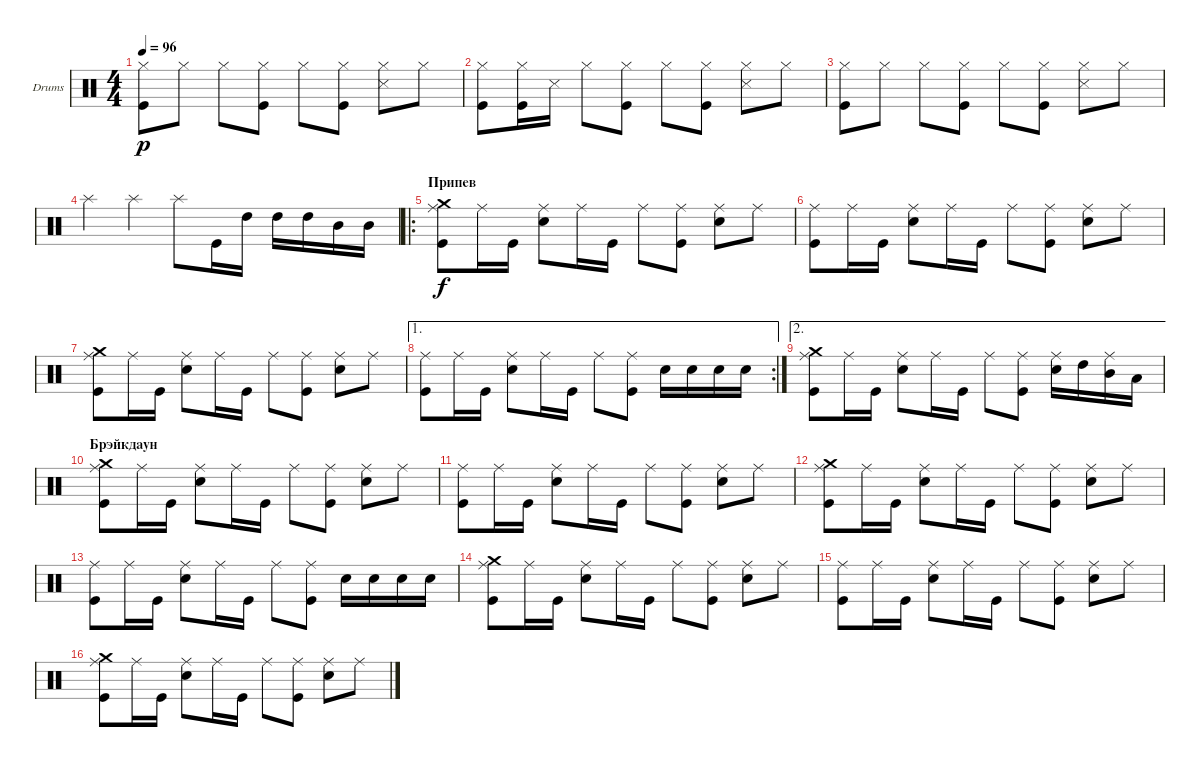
\defaultSystemsLayout 4
\bracketExtendMode groupsimilarinstruments
\firstSystemTrackNameOrientation horizontal
\otherSystemsTrackNameOrientation horizontal
\track ("Drumkit" "Drums") {instrument percussion}
\staff {score}
\articulation defaults
\ts (4 4)
\tempo 96
\clef neutral
\ks c
("Hi-Hat (closed)" "Kick (hit)").8{dy p} "Hi-Hat (closed)".8 "Hi-Hat (closed)".8 ("Hi-Hat (closed)" "Kick (hit)").8 "Hi-Hat (closed)".8 ("Hi-Hat (closed)" "Kick (hit)").8 ("Hi-Hat (closed)" "Snare (side stick) 3").8 "Hi-Hat (closed)".8 |
("Hi-Hat (closed)" "Kick (hit)").8 ("Hi-Hat (closed)" "Kick (hit)").16 "Snare (side stick) 3".16 "Hi-Hat (closed)".8 ("Hi-Hat (closed)" "Kick (hit)").8 "Hi-Hat (closed)".8 ("Hi-Hat (closed)" "Kick (hit)").8 ("Hi-Hat (closed)" "Snare (side stick) 3").8 "Hi-Hat (closed)".8 |
("Hi-Hat (closed)" "Kick (hit)").8 "Hi-Hat (closed)".8 "Hi-Hat (closed)".8 ("Hi-Hat (closed)" "Kick (hit)").8 "Hi-Hat (closed)".8 ("Hi-Hat (closed)" "Kick (hit)").8 ("Hi-Hat (closed)" "Snare (side stick) 3").8 "Hi-Hat (closed)".8 |
"Splash (hit)".4 "Splash (hit)".4 "Splash (hit)".8 "Kick (hit)".16 "High Tom (hit)".16 "High Tom (hit)".16 "High Tom (hit)".16 "Mid Tom (hit)".16 "Mid Tom (hit)".16 |
\ro
\section ("" "Припев")
("Crash medium (hit)" "Ride (middle)" "Kick (hit)").8{dy f} "Ride (middle)".16 "Kick (hit)".16 ("Ride (middle)" "Snare (hit) 2").8 "Ride (middle)".16 "Kick (hit)".16 "Ride (middle)".8 ("Ride (middle)" "Kick (hit)").8 ("Ride (middle)" "Snare (hit) 2").8 "Ride (middle)".8 |
("Ride (middle)" "Kick (hit)").8 "Ride (middle)".16 "Kick (hit)".16 ("Ride (middle)" "Snare (hit) 2").8 "Ride (middle)".16 "Kick (hit)".16 "Ride (middle)".8 ("Ride (middle)" "Kick (hit)").8 ("Ride (middle)" "Snare (hit) 2").8 "Ride (middle)".8 |
("Crash medium (hit)" "Ride (middle)" "Kick (hit)").8 "Ride (middle)".16 "Kick (hit)".16 ("Ride (middle)" "Snare (hit) 2").8 "Ride (middle)".16 "Kick (hit)".16 "Ride (middle)".8 ("Ride (middle)" "Kick (hit)").8 ("Ride (middle)" "Snare (hit) 2").8 "Ride (middle)".8 |
\ae 1
\rc 2
("Ride (middle)" "Kick (hit)").8 "Ride (middle)".16 "Kick (hit)".16 ("Ride (middle)" "Snare (hit) 2").8 "Ride (middle)".16 "Kick (hit)".16 "Ride (middle)".8 ("Ride (middle)" "Kick (hit)").8 "Snare (hit) 2".16 "Snare (hit) 2".16 "Snare (hit) 2".16 "Snare (hit) 2".16 |
\ae 2
("Crash medium (hit)" "Ride (middle)" "Kick (hit)").8 "Ride (middle)".16 "Kick (hit)".16 ("Ride (middle)" "Snare (hit) 2").8 "Ride (middle)".16 "Kick (hit)".16 "Ride (middle)".8 ("Ride (middle)" "Kick (hit)").8 ("Ride (middle)" "Snare (hit) 2").16 "High Tom (hit)".16 ("Ride (middle)" "Mid Tom (hit)").16 "Low Tom (hit)".16 |
\section ("" "Брэйкдаун")
("Crash medium (hit)" "Ride (middle)" "Kick (hit)").8 "Ride (middle)".16 "Kick (hit)".16 ("Ride (middle)" "Snare (hit) 2").8 "Ride (middle)".16 "Kick (hit)".16 "Ride (middle)".8 ("Ride (middle)" "Kick (hit)").8 ("Ride (middle)" "Snare (hit) 2").8 "Ride (middle)".8 |
("Ride (middle)" "Kick (hit)").8 "Ride (middle)".16 "Kick (hit)".16 ("Ride (middle)" "Snare (hit) 2").8 "Ride (middle)".16 "Kick (hit)".16 "Ride (middle)".8 ("Ride (middle)" "Kick (hit)").8 ("Ride (middle)" "Snare (hit) 2").8 "Ride (middle)".8 |
("Crash medium (hit)" "Ride (middle)" "Kick (hit)").8 "Ride (middle)".16 "Kick (hit)".16 ("Ride (middle)" "Snare (hit) 2").8 "Ride (middle)".16 "Kick (hit)".16 "Ride (middle)".8 ("Ride (middle)" "Kick (hit)").8 ("Ride (middle)" "Snare (hit) 2").8 "Ride (middle)".8 |
("Ride (middle)" "Kick (hit)").8 "Ride (middle)".16 "Kick (hit)".16 ("Ride (middle)" "Snare (hit) 2").8 "Ride (middle)".16 "Kick (hit)".16 "Ride (middle)".8 ("Ride (middle)" "Kick (hit)").8 "Snare (hit) 2".16 "Snare (hit) 2".16 "Snare (hit) 2".16 "Snare (hit) 2".16 |
("Crash medium (hit)" "Ride (middle)" "Kick (hit)").8 "Ride (middle)".16 "Kick (hit)".16 ("Ride (middle)" "Snare (hit) 2").8 "Ride (middle)".16 "Kick (hit)".16 "Ride (middle)".8 ("Ride (middle)" "Kick (hit)").8 ("Ride (middle)" "Snare (hit) 2").8 "Ride (middle)".8 |
("Ride (middle)" "Kick (hit)").8 "Ride (middle)".16 "Kick (hit)".16 ("Ride (middle)" "Snare (hit) 2").8 "Ride (middle)".16 "Kick (hit)".16 "Ride (middle)".8 ("Ride (middle)" "Kick (hit)").8 ("Ride (middle)" "Snare (hit) 2").8 "Ride (middle)".8 |
("Crash medium (hit)" "Ride (middle)" "Kick (hit)").8 "Ride (middle)".16 "Kick (hit)".16 ("Ride (middle)" "Snare (hit) 2").8 "Ride (middle)".16 "Kick (hit)".16 "Ride (middle)".8 ("Ride (middle)" "Kick (hit)").8 ("Ride (middle)" "Snare (hit) 2").8 "Ride (middle)".8
